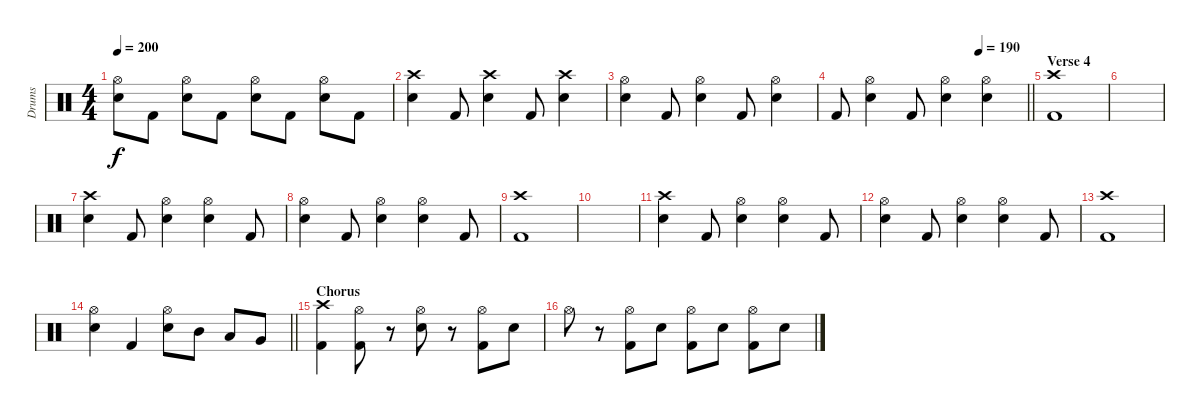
\track ("Drums" "Drums") {instrument percussion}
\staff {score}
\articulation defaults
\ts (4 4)
\tempo 200
\clef neutral
\ks c
("Snare (hit) 2" "Hi-Hat (open)").8{dy f} "Kick (hit) 2".8 ("Snare (hit) 2" "Hi-Hat (open)").8 "Kick (hit) 2".8 ("Snare (hit) 2" "Hi-Hat (open)").8 "Kick (hit) 2".8 ("Snare (hit) 2" "Hi-Hat (open)").8 "Kick (hit) 2".8 |
("Crash high (hit)" "Snare (hit) 2").4 "Kick (hit) 2".8 ("Crash high (hit)" "Snare (hit) 2").4 "Kick (hit) 2".8 ("Crash high (hit)" "Snare (hit) 2").4 |
("Snare (hit) 2" "Hi-Hat (open)").4 "Kick (hit) 2".8 ("Snare (hit) 2" "Hi-Hat (open)").4 "Kick (hit) 2".8 ("Snare (hit) 2" "Hi-Hat (open)").4 |
\tempo (190 0.75)
\barLineRight lightlight "Kick (hit) 2".8
("Snare (hit) 2" "Hi-Hat (open)").4 "Kick (hit) 2".8 ("Snare (hit) 2" "Hi-Hat (open)").4 ("Snare (hit) 2" "Hi-Hat (open)").4 |
\section ("" "Verse 4")
("Crash high (hit)" "Kick (hit) 2").1 |
|
("Crash high (hit)" "Snare (hit) 2").4 "Kick (hit) 2".8 ("Snare (hit) 2" "Hi-Hat (open)").4 ("Snare (hit) 2" "Hi-Hat (open)").4 "Kick (hit) 2".8 |
("Snare (hit) 2" "Hi-Hat (open)").4 "Kick (hit) 2".8 ("Snare (hit) 2" "Hi-Hat (open)").4 ("Snare (hit) 2" "Hi-Hat (open)").4 "Kick (hit) 2".8 |
("Crash high (hit)" "Kick (hit) 2").1 |
|
("Crash high (hit)" "Snare (hit) 2").4 "Kick (hit) 2".8 ("Snare (hit) 2" "Hi-Hat (open)").4 ("Snare (hit) 2" "Hi-Hat (open)").4 "Kick (hit) 2".8 |
("Snare (hit) 2" "Hi-Hat (open)").4 "Kick (hit) 2".8 ("Snare (hit) 2" "Hi-Hat (open)").4 ("Snare (hit) 2" "Hi-Hat (open)").4 "Kick (hit) 2".8 |
("Crash high (hit)" "Kick (hit) 2").1 |
\barLineRight lightlight
("Snare (hit) 2" "Hi-Hat (open)").4 "Kick (hit) 2".4 ("Snare (hit) 2" "Hi-Hat (open)").8 "Mid Tom (hit)".8 "Low Tom (hit)".8 "Very Low Tom (hit)".8 |
\section ("" "Chorus")
("Crash high (hit)" "Kick (hit) 2").4 ("Hi-Hat (open)" "Kick (hit) 2").8 r.8 ("Snare (hit) 2" "Hi-Hat (open)").8 r.8 ("Hi-Hat (open)" "Kick (hit) 2").8 "Snare (hit) 2".8 |
"Hi-Hat (open)".8 r.8 ("Hi-Hat (open)" "Kick (hit) 2").8 "Snare (hit) 2".8 ("Hi-Hat (open)" "Kick (hit) 2").8 "Snare (hit) 2".8 ("Hi-Hat (open)" "Kick (hit) 2").8 "Snare (hit) 2".8
